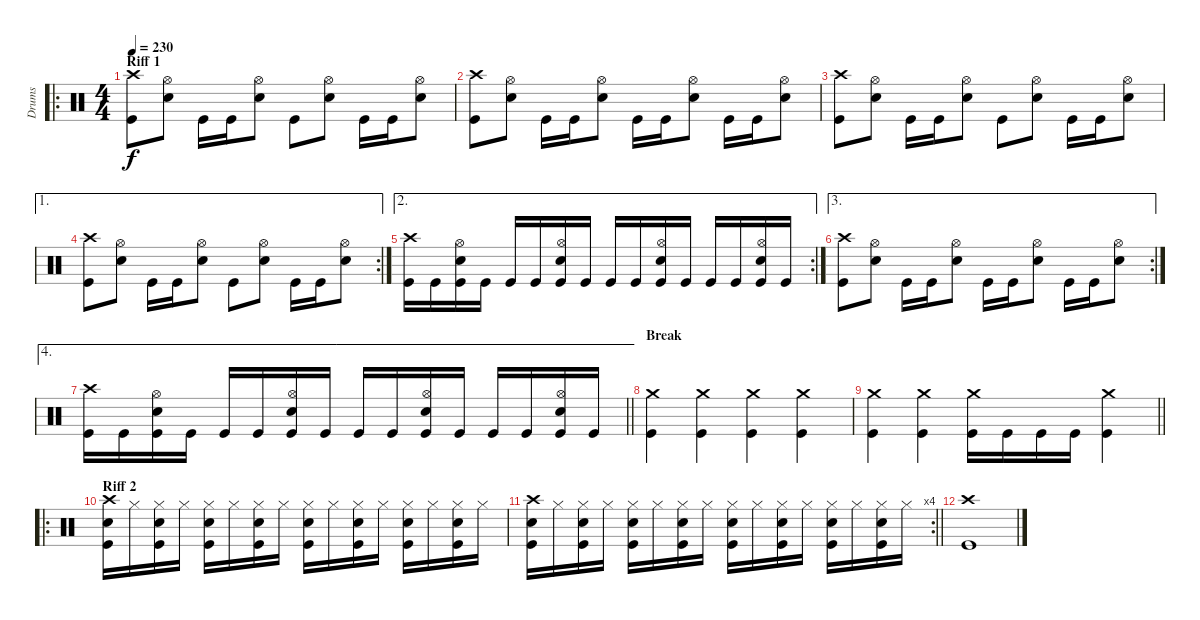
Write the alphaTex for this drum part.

\track ("Drums" "Drums") {instrument percussion}
\staff {score}
\articulation defaults
\ro
\ts (4 4)
\section ("" "Riff 1")
\tempo 230
\clef neutral
\ks c
("Crash high (hit)" "Kick (hit)").8{dy f} ("Hi-Hat (open)" "Snare (hit) 2").8 "Kick (hit)".16 "Kick (hit)".16 ("Hi-Hat (open)" "Snare (hit) 2").8 "Kick (hit)".8 ("Hi-Hat (open)" "Snare (hit) 2").8 "Kick (hit)".16 "Kick (hit)".16 ("Hi-Hat (open)" "Snare (hit) 2").8 |
("Crash high (hit)" "Kick (hit)").8 ("Hi-Hat (open)" "Snare (hit) 2").8 "Kick (hit)".16 "Kick (hit)".16 ("Hi-Hat (open)" "Snare (hit) 2").8 "Kick (hit)".16 "Kick (hit)".16 ("Hi-Hat (open)" "Snare (hit) 2").8 "Kick (hit)".16 "Kick (hit)".16 ("Hi-Hat (open)" "Snare (hit) 2").8 |
("Crash high (hit)" "Kick (hit)").8 ("Hi-Hat (open)" "Snare (hit) 2").8 "Kick (hit)".16 "Kick (hit)".16 ("Hi-Hat (open)" "Snare (hit) 2").8 "Kick (hit)".8 ("Hi-Hat (open)" "Snare (hit) 2").8 "Kick (hit)".16 "Kick (hit)".16 ("Hi-Hat (open)" "Snare (hit) 2").8 |
\ae 1
\rc 2
("Crash high (hit)" "Kick (hit)").8 ("Hi-Hat (open)" "Snare (hit) 2").8 "Kick (hit)".16 "Kick (hit)".16 ("Hi-Hat (open)" "Snare (hit) 2").8 "Kick (hit)".8 ("Hi-Hat (open)" "Snare (hit) 2").8 "Kick (hit)".16 "Kick (hit)".16 ("Hi-Hat (open)" "Snare (hit) 2").8 |
\ae 2
\rc 2
("Crash high (hit)" "Kick (hit)").16 "Kick (hit)".16 ("Hi-Hat (open)" "Snare (hit) 2" "Kick (hit)").16 "Kick (hit)".16 "Kick (hit)".16 "Kick (hit)".16 ("Hi-Hat (open)" "Snare (hit) 2" "Kick (hit)").16 "Kick (hit)".16 "Kick (hit)".16 "Kick (hit)".16 ("Hi-Hat (open)" "Snare (hit) 2" "Kick (hit)").16 "Kick (hit)".16 "Kick (hit)".16 "Kick (hit)".16 ("Hi-Hat (open)" "Snare (hit) 2" "Kick (hit)").16 "Kick (hit)".16 |
\ae 3
\rc 2
("Crash high (hit)" "Kick (hit)").8 ("Hi-Hat (open)" "Snare (hit) 2").8 "Kick (hit)".16 "Kick (hit)".16 ("Hi-Hat (open)" "Snare (hit) 2").8 "Kick (hit)".16 "Kick (hit)".16 ("Hi-Hat (open)" "Snare (hit) 2").8 "Kick (hit)".16 "Kick (hit)".16 ("Hi-Hat (open)" "Snare (hit) 2").8 |
\ae 4
\barLineRight lightlight
("Crash high (hit)" "Kick (hit)").16 "Kick (hit)".16 ("Hi-Hat (open)" "Snare (hit) 2" "Kick (hit)").16 "Kick (hit)".16 "Kick (hit)".16 "Kick (hit)".16 ("Hi-Hat (open)" "Snare (hit) 2" "Kick (hit)").16 "Kick (hit)".16 "Kick (hit)".16 "Kick (hit)".16 ("Hi-Hat (open)" "Snare (hit) 2" "Kick (hit)").16 "Kick (hit)".16 "Kick (hit)".16 "Kick (hit)".16 ("Hi-Hat (open)" "Snare (hit) 2" "Kick (hit)").16 "Kick (hit)".16 |
\section ("" "Break")
("Crash medium (hit)" "Kick (hit)").4 ("Crash medium (hit)" "Kick (hit)").4 ("Crash medium (hit)" "Kick (hit)").4 ("Crash medium (hit)" "Kick (hit)").4 |
\barLineRight lightlight
("Crash medium (hit)" "Kick (hit)").4 ("Crash medium (hit)" "Kick (hit)").4 ("Crash medium (hit)" "Kick (hit)").16 "Kick (hit)".16 "Kick (hit)".16 "Kick (hit)".16 ("Crash medium (hit)" "Kick (hit)").4 |
\ro
\section ("" "Riff 2")
("Crash high (hit)" "Snare (hit) 2" "Kick (hit)").16 "Hi-Hat (closed)".16 ("Hi-Hat (closed)" "Snare (hit) 2" "Kick (hit)").16 "Hi-Hat (closed)".16 ("Hi-Hat (closed)" "Snare (hit) 2" "Kick (hit)").16 "Hi-Hat (closed)".16 ("Hi-Hat (closed)" "Snare (hit) 2" "Kick (hit)").16 "Hi-Hat (closed)".16 ("Hi-Hat (closed)" "Snare (hit) 2" "Kick (hit)").16 "Hi-Hat (closed)".16 ("Hi-Hat (closed)" "Snare (hit) 2" "Kick (hit)").16 "Hi-Hat (closed)".16 ("Hi-Hat (closed)" "Snare (hit) 2" "Kick (hit)").16 "Hi-Hat (closed)".16 ("Hi-Hat (closed)" "Snare (hit) 2" "Kick (hit)").16 "Hi-Hat (closed)".16 |
\rc 4
\barLineRight lightlight
("Crash high (hit)" "Snare (hit) 2" "Kick (hit)").16 "Hi-Hat (closed)".16 ("Hi-Hat (closed)" "Snare (hit) 2" "Kick (hit)").16 "Hi-Hat (closed)".16 ("Hi-Hat (closed)" "Snare (hit) 2" "Kick (hit)").16 "Hi-Hat (closed)".16 ("Hi-Hat (closed)" "Snare (hit) 2" "Kick (hit)").16 "Hi-Hat (closed)".16 ("Hi-Hat (closed)" "Snare (hit) 2" "Kick (hit)").16 "Hi-Hat (closed)".16 ("Hi-Hat (closed)" "Snare (hit) 2" "Kick (hit)").16 "Hi-Hat (closed)".16 ("Hi-Hat (closed)" "Snare (hit) 2" "Kick (hit)").16 "Hi-Hat (closed)".16 ("Hi-Hat (closed)" "Snare (hit) 2" "Kick (hit)").16 "Hi-Hat (closed)".16 |
("Crash high (hit)" "Kick (hit)").1
